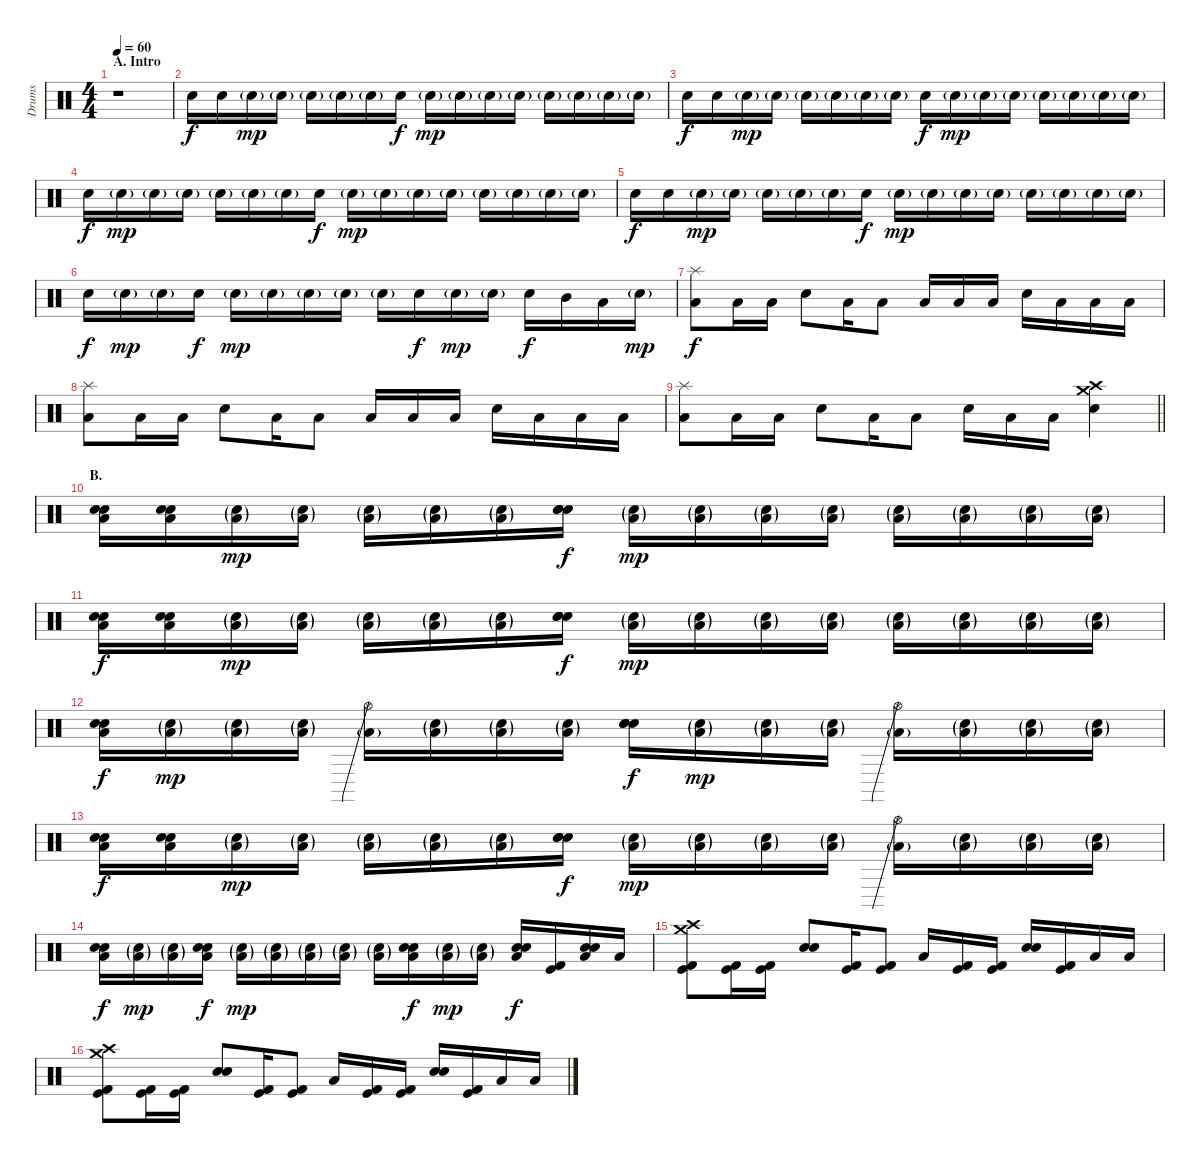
\track ("Drums" "Drums") {instrument percussion}
\staff {score}
\articulation defaults
\ts (4 4)
\section ("" "A. Intro")
\tempo 60
\clef neutral
\ks c
r.1{dy f} |
"Electric Snare (hit)".16{volume 6} "Electric Snare (hit)".16 "Electric Snare (hit)"{g}.16{dy mp} "Electric Snare (hit)"{g}.16 "Electric Snare (hit)"{g}.16 "Electric Snare (hit)"{g}.16 "Electric Snare (hit)"{g}.16 "Electric Snare (hit)".16{dy f} "Electric Snare (hit)"{g}.16{dy mp} "Electric Snare (hit)"{g}.16 "Electric Snare (hit)"{g}.16 "Electric Snare (hit)"{g}.16 "Electric Snare (hit)"{g}.16 "Electric Snare (hit)"{g}.16 "Electric Snare (hit)"{g}.16 "Electric Snare (hit)"{g}.16 |
"Electric Snare (hit)".16{dy f} "Electric Snare (hit)".16 "Electric Snare (hit)"{g}.16{dy mp} "Electric Snare (hit)"{g}.16 "Electric Snare (hit)"{g}.16 "Electric Snare (hit)"{g}.16 "Electric Snare (hit)"{g}.16 "Electric Snare (hit)"{g}.16 "Electric Snare (hit)".16{dy f} "Electric Snare (hit)"{g}.16{dy mp} "Electric Snare (hit)"{g}.16 "Electric Snare (hit)"{g}.16 "Electric Snare (hit)"{g}.16 "Electric Snare (hit)"{g}.16 "Electric Snare (hit)"{g}.16 "Electric Snare (hit)"{g}.16 |
"Electric Snare (hit)".16{dy f} "Electric Snare (hit)"{g}.16{dy mp} "Electric Snare (hit)"{g}.16 "Electric Snare (hit)"{g}.16 "Electric Snare (hit)"{g}.16 "Electric Snare (hit)"{g}.16 "Electric Snare (hit)"{g}.16 "Electric Snare (hit)".16{dy f} "Electric Snare (hit)"{g}.16{dy mp} "Electric Snare (hit)"{g}.16 "Electric Snare (hit)"{g}.16 "Electric Snare (hit)"{g}.16 "Electric Snare (hit)"{g}.16 "Electric Snare (hit)"{g}.16 "Electric Snare (hit)"{g}.16 "Electric Snare (hit)"{g}.16 |
"Electric Snare (hit)".16{dy f} "Electric Snare (hit)".16 "Electric Snare (hit)"{g}.16{dy mp} "Electric Snare (hit)"{g}.16 "Electric Snare (hit)"{g}.16 "Electric Snare (hit)"{g}.16 "Electric Snare (hit)"{g}.16 "Electric Snare (hit)".16{dy f} "Electric Snare (hit)"{g}.16{dy mp} "Electric Snare (hit)"{g}.16 "Electric Snare (hit)"{g}.16 "Electric Snare (hit)"{g}.16 "Electric Snare (hit)"{g}.16 "Electric Snare (hit)"{g}.16 "Electric Snare (hit)"{g}.16 "Electric Snare (hit)"{g}.16 |
"Electric Snare (hit)".16{dy f} "Electric Snare (hit)"{g}.16{dy mp} "Electric Snare (hit)"{g}.16 "Electric Snare (hit)".16{dy f} "Electric Snare (hit)"{g}.16{dy mp} "Electric Snare (hit)"{g}.16 "Electric Snare (hit)"{g}.16 "Electric Snare (hit)"{g}.16 "Electric Snare (hit)"{g}.16 "Electric Snare (hit)".16{dy f} "Electric Snare (hit)"{g}.16{dy mp} "Electric Snare (hit)"{g}.16 "Electric Snare (hit)".16{dy f} "Mid Tom (hit)".16 "Low Tom (hit)".16 "Electric Snare (hit)"{g}.16{dy mp} |
("Splash (hit)" "Low Tom (hit)").8{dy f} "Low Tom (hit)".16 "Low Tom (hit)".16 "Electric Snare (hit)".8 "Low Tom (hit)".16 "Low Tom (hit)".8 "Low Floor Tom (hit)".16 "Low Tom (hit)".16 "Low Tom (hit)".16 "Electric Snare (hit)".16 "Low Tom (hit)".16 "Low Tom (hit)".16 "Low Floor Tom (hit)".16 |
("Splash (hit)" "Low Tom (hit)").8 "Low Tom (hit)".16 "Low Tom (hit)".16 "Electric Snare (hit)".8 "Low Tom (hit)".16 "Low Tom (hit)".8 "Low Floor Tom (hit)".16 "Low Tom (hit)".16 "Low Tom (hit)".16 "Electric Snare (hit)".16 "Low Tom (hit)".16 "Low Tom (hit)".16 "Low Floor Tom (hit)".16 |
\barLineRight lightlight
("Splash (hit)" "Low Tom (hit)").8 "Low Tom (hit)".16 "Low Tom (hit)".16 "Electric Snare (hit)".8 "Low Tom (hit)".16 "Low Tom (hit)".8 "Electric Snare (hit)".16 "Low Tom (hit)".16 "Low Tom (hit)".16 ("Crash high (hit)" "Crash medium (hit)" "Electric Snare (hit)").4 |
\section ("" "B. ")
("Snare (hit) 2" "Electric Snare (hit)" "Low Floor Tom (hit)").16{volume 15} ("Snare (hit) 2" "Electric Snare (hit)" "Low Floor Tom (hit)").16 ("Electric Snare (hit)"{g} "Low Floor Tom (hit)"{g}).16{dy mp} ("Electric Snare (hit)"{g} "Low Floor Tom (hit)"{g}).16 ("Electric Snare (hit)"{g} "Low Floor Tom (hit)"{g}).16 ("Electric Snare (hit)"{g} "Low Floor Tom (hit)"{g}).16 ("Electric Snare (hit)"{g} "Low Floor Tom (hit)"{g}).16 ("Snare (hit) 2" "Electric Snare (hit)" "Electric Snare (hit)").16{dy f} ("Electric Snare (hit)"{g} "Low Floor Tom (hit)"{g}).16{dy mp} ("Electric Snare (hit)"{g} "Low Floor Tom (hit)"{g}).16 ("Electric Snare (hit)"{g} "Low Floor Tom (hit)"{g}).16 ("Electric Snare (hit)"{g} "Low Floor Tom (hit)"{g}).16 ("Electric Snare (hit)"{g} "Low Floor Tom (hit)"{g}).16 ("Electric Snare (hit)"{g} "Low Floor Tom (hit)"{g}).16 ("Electric Snare (hit)"{g} "Low Floor Tom (hit)"{g}).16 ("Electric Snare (hit)"{g} "Low Floor Tom (hit)"{g}).16 |
("Snare (hit) 2" "Electric Snare (hit)" "Low Floor Tom (hit)").16{dy f} ("Snare (hit) 2" "Electric Snare (hit)" "Low Floor Tom (hit)").16 ("Electric Snare (hit)"{g} "Low Floor Tom (hit)"{g}).16{dy mp} ("Electric Snare (hit)"{g} "Low Floor Tom (hit)"{g}).16 ("Electric Snare (hit)"{g} "Low Floor Tom (hit)"{g}).16 ("Electric Snare (hit)"{g} "Low Floor Tom (hit)"{g}).16 ("Electric Snare (hit)"{g} "Low Floor Tom (hit)"{g}).16 ("Snare (hit) 2" "Electric Snare (hit)" "Electric Snare (hit)").16{dy f} ("Electric Snare (hit)"{g} "Low Floor Tom (hit)"{g}).16{dy mp} ("Electric Snare (hit)"{g} "Low Floor Tom (hit)"{g}).16 ("Electric Snare (hit)"{g} "Low Floor Tom (hit)"{g}).16 ("Electric Snare (hit)"{g} "Low Floor Tom (hit)"{g}).16 ("Electric Snare (hit)"{g} "Low Floor Tom (hit)"{g}).16 ("Electric Snare (hit)"{g} "Low Floor Tom (hit)"{g}).16 ("Electric Snare (hit)"{g} "Low Floor Tom (hit)"{g}).16 ("Electric Snare (hit)"{g} "Low Floor Tom (hit)"{g}).16 |
("Snare (hit) 2" "Electric Snare (hit)" "Low Floor Tom (hit)").16{dy f} ("Electric Snare (hit)"{g} "Low Floor Tom (hit)"{g}).16{dy mp} ("Electric Snare (hit)"{g} "Low Floor Tom (hit)"{g}).16 ("Electric Snare (hit)"{g} "Low Floor Tom (hit)"{g}).16 ("Hi-Hat (open)"{be (prebend 0 4 60 4)} "Low Floor Tom (hit)"{g}).16 ("Electric Snare (hit)"{g} "Low Floor Tom (hit)"{g}).16 ("Electric Snare (hit)"{g} "Low Floor Tom (hit)"{g}).16 ("Electric Snare (hit)"{g} "Low Floor Tom (hit)"{g}).16 ("Snare (hit) 2" "Electric Snare (hit)" "Electric Snare (hit)").16{dy f} ("Electric Snare (hit)"{g} "Low Floor Tom (hit)"{g}).16{dy mp} ("Electric Snare (hit)"{g} "Low Floor Tom (hit)"{g}).16 ("Electric Snare (hit)"{g} "Low Floor Tom (hit)"{g}).16 ("Hi-Hat (open)"{be (prebend 0 4 60 4)} "Low Floor Tom (hit)"{g}).16 ("Electric Snare (hit)"{g} "Low Floor Tom (hit)"{g}).16 ("Electric Snare (hit)"{g} "Low Floor Tom (hit)"{g}).16 ("Electric Snare (hit)"{g} "Low Floor Tom (hit)"{g}).16 |
("Snare (hit) 2" "Electric Snare (hit)" "Low Floor Tom (hit)").16{dy f} ("Snare (hit) 2" "Electric Snare (hit)" "Low Floor Tom (hit)").16 ("Electric Snare (hit)"{g} "Low Floor Tom (hit)"{g}).16{dy mp} ("Electric Snare (hit)"{g} "Low Floor Tom (hit)"{g}).16 ("Electric Snare (hit)"{g} "Low Floor Tom (hit)"{g}).16 ("Electric Snare (hit)"{g} "Low Floor Tom (hit)"{g}).16 ("Electric Snare (hit)"{g} "Low Floor Tom (hit)"{g}).16 ("Snare (hit) 2" "Electric Snare (hit)" "Electric Snare (hit)").16{dy f} ("Electric Snare (hit)"{g} "Low Floor Tom (hit)"{g}).16{dy mp} ("Electric Snare (hit)"{g} "Low Floor Tom (hit)"{g}).16 ("Electric Snare (hit)"{g} "Low Floor Tom (hit)"{g}).16 ("Electric Snare (hit)"{g} "Low Floor Tom (hit)"{g}).16 ("Hi-Hat (open)"{be (prebend 0 4 60 4)} "Low Floor Tom (hit)"{g}).16 ("Electric Snare (hit)"{g} "Low Floor Tom (hit)"{g}).16 ("Electric Snare (hit)"{g} "Low Floor Tom (hit)"{g}).16 ("Electric Snare (hit)"{g} "Low Floor Tom (hit)"{g}).16 |
("Snare (hit) 2" "Electric Snare (hit)" "Low Floor Tom (hit)").16{dy f} ("Electric Snare (hit)"{g} "Low Floor Tom (hit)"{g}).16{dy mp} ("Electric Snare (hit)"{g} "Low Floor Tom (hit)"{g}).16 ("Snare (hit) 2" "Electric Snare (hit)" "Low Floor Tom (hit)").16{dy f} ("Electric Snare (hit)"{g} "Low Floor Tom (hit)"{g}).16{dy mp} ("Electric Snare (hit)"{g} "Low Floor Tom (hit)"{g}).16 ("Electric Snare (hit)"{g} "Low Floor Tom (hit)"{g}).16 ("Electric Snare (hit)"{g} "Low Floor Tom (hit)"{g}).16 ("Electric Snare (hit)"{g} "Low Floor Tom (hit)"{g}).16 ("Snare (hit) 2" "Electric Snare (hit)" "Low Floor Tom (hit)").16{dy f} ("Electric Snare (hit)"{g} "Low Floor Tom (hit)"{g}).16{dy mp} ("Electric Snare (hit)"{g} "Low Floor Tom (hit)"{g}).16 ("Snare (hit) 2" "Electric Snare (hit)" "Low Floor Tom (hit)").16{dy f} ("Kick (hit)" "Kick (hit) 2").16 ("Snare (hit) 2" "Electric Snare (hit)" "Low Floor Tom (hit)").16 "Low Tom (hit)".16 |
("Crash high (hit)" "Crash medium (hit)" "Kick (hit)" "Kick (hit) 2").8 ("Kick (hit)" "Kick (hit) 2").16 ("Kick (hit)" "Kick (hit) 2").16 ("Snare (hit) 2" "Electric Snare (hit)").8 ("Kick (hit)" "Kick (hit) 2").16 ("Kick (hit)" "Kick (hit) 2").8 "Low Tom (hit)".16 ("Kick (hit)" "Kick (hit) 2").16 ("Kick (hit)" "Kick (hit) 2").16 ("Snare (hit) 2" "Electric Snare (hit)").16 ("Kick (hit)" "Kick (hit) 2").16 "Low Tom (hit)".16 "Low Floor Tom (hit)".16 |
("Crash high (hit)" "Crash medium (hit)" "Kick (hit)" "Kick (hit) 2").8 ("Kick (hit)" "Kick (hit) 2").16 ("Kick (hit)" "Kick (hit) 2").16 ("Snare (hit) 2" "Electric Snare (hit)").8 ("Kick (hit)" "Kick (hit) 2").16 ("Kick (hit)" "Kick (hit) 2").8 "Low Tom (hit)".16 ("Kick (hit)" "Kick (hit) 2").16 ("Kick (hit)" "Kick (hit) 2").16 ("Snare (hit) 2" "Electric Snare (hit)").16 ("Kick (hit)" "Kick (hit) 2").16 "Low Tom (hit)".16 "Low Floor Tom (hit)".16
